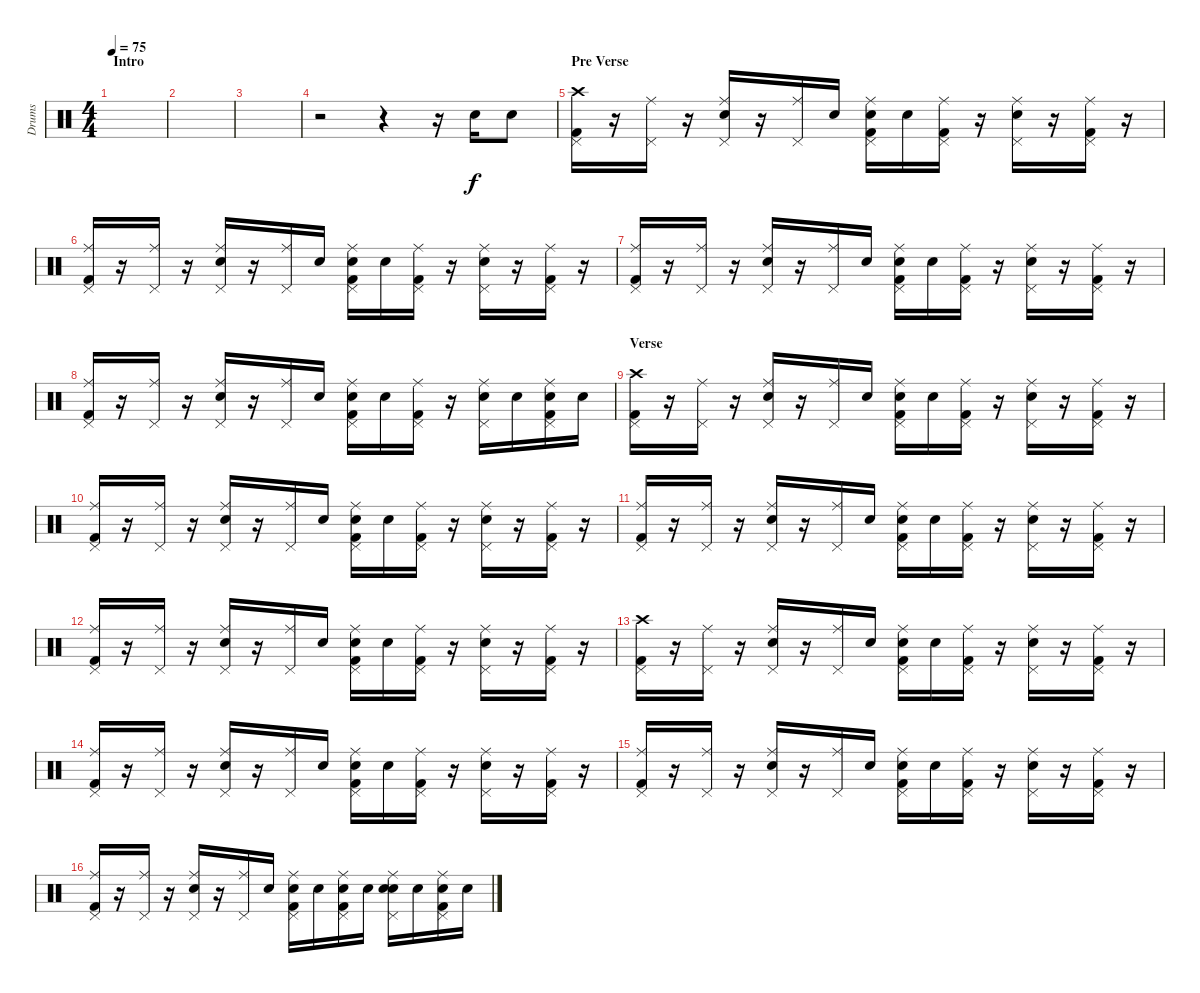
\track ("Drums" "Drums") {instrument percussion}
\staff {score}
\articulation defaults
\ts (4 4)
\section ("" "Intro")
\tempo 75
\clef neutral
\ks c
|
|
|
r.2 r.4 r.16 "Electric Snare (hit)".16 "Electric Snare (hit)".8 |
\section ("" "Pre Verse")
("Crash high (hit)" "Kick (hit) 2" "Pedal Hi-Hat (hit)").16 r.16 ("Ride (middle)" "Pedal Hi-Hat (hit)").16 r.16 ("Ride (middle)" "Electric Snare (hit)" "Pedal Hi-Hat (hit)").16 r.16 ("Ride (middle)" "Pedal Hi-Hat (hit)").16 "Snare (hit) 2".16 ("Ride (middle)" "Electric Snare (hit)" "Kick (hit) 2" "Pedal Hi-Hat (hit)").16 "Electric Snare (hit)".16 ("Ride (middle)" "Kick (hit) 2" "Pedal Hi-Hat (hit)").16 r.16 ("Ride (middle)" "Electric Snare (hit)" "Pedal Hi-Hat (hit)").16 r.16 ("Ride (middle)" "Kick (hit) 2" "Pedal Hi-Hat (hit)").16 r.16 |
("Ride (middle)" "Kick (hit) 2" "Pedal Hi-Hat (hit)").16 r.16 ("Ride (middle)" "Pedal Hi-Hat (hit)").16 r.16 ("Ride (middle)" "Electric Snare (hit)" "Pedal Hi-Hat (hit)").16 r.16 ("Ride (middle)" "Pedal Hi-Hat (hit)").16 "Snare (hit) 2".16 ("Ride (middle)" "Electric Snare (hit)" "Kick (hit) 2" "Pedal Hi-Hat (hit)").16 "Electric Snare (hit)".16 ("Ride (middle)" "Kick (hit) 2" "Pedal Hi-Hat (hit)").16 r.16 ("Ride (middle)" "Electric Snare (hit)" "Pedal Hi-Hat (hit)").16 r.16 ("Ride (middle)" "Kick (hit) 2" "Pedal Hi-Hat (hit)").16 r.16 |
("Ride (middle)" "Kick (hit) 2" "Pedal Hi-Hat (hit)").16 r.16 ("Ride (middle)" "Pedal Hi-Hat (hit)").16 r.16 ("Ride (middle)" "Electric Snare (hit)" "Pedal Hi-Hat (hit)").16 r.16 ("Ride (middle)" "Pedal Hi-Hat (hit)").16 "Snare (hit) 2".16 ("Ride (middle)" "Electric Snare (hit)" "Kick (hit) 2" "Pedal Hi-Hat (hit)").16 "Electric Snare (hit)".16 ("Ride (middle)" "Kick (hit) 2" "Pedal Hi-Hat (hit)").16 r.16 ("Ride (middle)" "Electric Snare (hit)" "Pedal Hi-Hat (hit)").16 r.16 ("Ride (middle)" "Kick (hit) 2" "Pedal Hi-Hat (hit)").16 r.16 |
("Ride (middle)" "Kick (hit) 2" "Pedal Hi-Hat (hit)").16 r.16 ("Ride (middle)" "Pedal Hi-Hat (hit)").16 r.16 ("Ride (middle)" "Electric Snare (hit)" "Pedal Hi-Hat (hit)").16 r.16 ("Ride (middle)" "Pedal Hi-Hat (hit)").16 "Snare (hit) 2".16 ("Ride (middle)" "Electric Snare (hit)" "Kick (hit) 2" "Pedal Hi-Hat (hit)").16 "Electric Snare (hit)".16 ("Ride (middle)" "Kick (hit) 2" "Pedal Hi-Hat (hit)").16 r.16 ("Ride (middle)" "Electric Snare (hit)" "Pedal Hi-Hat (hit)").16 "Electric Snare (hit)".16 ("Ride (middle)" "Electric Snare (hit)" "Kick (hit) 2" "Pedal Hi-Hat (hit)").16 "Electric Snare (hit)".16 |
\section ("" "Verse")
("Crash high (hit)" "Kick (hit) 2" "Pedal Hi-Hat (hit)").16 r.16 ("Ride (middle)" "Pedal Hi-Hat (hit)").16 r.16 ("Ride (middle)" "Electric Snare (hit)" "Pedal Hi-Hat (hit)").16 r.16 ("Ride (middle)" "Pedal Hi-Hat (hit)").16 "Snare (hit) 2".16 ("Ride (middle)" "Electric Snare (hit)" "Kick (hit) 2" "Pedal Hi-Hat (hit)").16 "Electric Snare (hit)".16 ("Ride (middle)" "Kick (hit) 2" "Pedal Hi-Hat (hit)").16 r.16 ("Ride (middle)" "Electric Snare (hit)" "Pedal Hi-Hat (hit)").16 r.16 ("Ride (middle)" "Kick (hit) 2" "Pedal Hi-Hat (hit)").16 r.16 |
("Ride (middle)" "Kick (hit) 2" "Pedal Hi-Hat (hit)").16 r.16 ("Ride (middle)" "Pedal Hi-Hat (hit)").16 r.16 ("Ride (middle)" "Electric Snare (hit)" "Pedal Hi-Hat (hit)").16 r.16 ("Ride (middle)" "Pedal Hi-Hat (hit)").16 "Snare (hit) 2".16 ("Ride (middle)" "Electric Snare (hit)" "Kick (hit) 2" "Pedal Hi-Hat (hit)").16 "Electric Snare (hit)".16 ("Ride (middle)" "Kick (hit) 2" "Pedal Hi-Hat (hit)").16 r.16 ("Ride (middle)" "Electric Snare (hit)" "Pedal Hi-Hat (hit)").16 r.16 ("Ride (middle)" "Kick (hit) 2" "Pedal Hi-Hat (hit)").16 r.16 |
("Ride (middle)" "Kick (hit) 2" "Pedal Hi-Hat (hit)").16 r.16 ("Ride (middle)" "Pedal Hi-Hat (hit)").16 r.16 ("Ride (middle)" "Electric Snare (hit)" "Pedal Hi-Hat (hit)").16 r.16 ("Ride (middle)" "Pedal Hi-Hat (hit)").16 "Snare (hit) 2".16 ("Ride (middle)" "Electric Snare (hit)" "Kick (hit) 2" "Pedal Hi-Hat (hit)").16 "Electric Snare (hit)".16 ("Ride (middle)" "Kick (hit) 2" "Pedal Hi-Hat (hit)").16 r.16 ("Ride (middle)" "Electric Snare (hit)" "Pedal Hi-Hat (hit)").16 r.16 ("Ride (middle)" "Kick (hit) 2" "Pedal Hi-Hat (hit)").16 r.16 |
("Ride (middle)" "Kick (hit) 2" "Pedal Hi-Hat (hit)").16 r.16 ("Ride (middle)" "Pedal Hi-Hat (hit)").16 r.16 ("Ride (middle)" "Electric Snare (hit)" "Pedal Hi-Hat (hit)").16 r.16 ("Ride (middle)" "Pedal Hi-Hat (hit)").16 "Snare (hit) 2".16 ("Ride (middle)" "Electric Snare (hit)" "Kick (hit) 2" "Pedal Hi-Hat (hit)").16 "Electric Snare (hit)".16 ("Ride (middle)" "Kick (hit) 2" "Pedal Hi-Hat (hit)").16 r.16 ("Ride (middle)" "Electric Snare (hit)" "Pedal Hi-Hat (hit)").16 r.16 ("Ride (middle)" "Kick (hit) 2" "Pedal Hi-Hat (hit)").16 r.16 |
("Crash high (hit)" "Kick (hit) 2" "Pedal Hi-Hat (hit)").16 r.16 ("Ride (middle)" "Pedal Hi-Hat (hit)").16 r.16 ("Ride (middle)" "Electric Snare (hit)" "Pedal Hi-Hat (hit)").16 r.16 ("Ride (middle)" "Pedal Hi-Hat (hit)").16 "Snare (hit) 2".16 ("Ride (middle)" "Electric Snare (hit)" "Kick (hit) 2" "Pedal Hi-Hat (hit)").16 "Electric Snare (hit)".16 ("Ride (middle)" "Kick (hit) 2" "Pedal Hi-Hat (hit)").16 r.16 ("Ride (middle)" "Electric Snare (hit)" "Pedal Hi-Hat (hit)").16 r.16 ("Ride (middle)" "Kick (hit) 2" "Pedal Hi-Hat (hit)").16 r.16 |
("Ride (middle)" "Kick (hit) 2" "Pedal Hi-Hat (hit)").16 r.16 ("Ride (middle)" "Pedal Hi-Hat (hit)").16 r.16 ("Ride (middle)" "Electric Snare (hit)" "Pedal Hi-Hat (hit)").16 r.16 ("Ride (middle)" "Pedal Hi-Hat (hit)").16 "Snare (hit) 2".16 ("Ride (middle)" "Electric Snare (hit)" "Kick (hit) 2" "Pedal Hi-Hat (hit)").16 "Electric Snare (hit)".16 ("Ride (middle)" "Kick (hit) 2" "Pedal Hi-Hat (hit)").16 r.16 ("Ride (middle)" "Electric Snare (hit)" "Pedal Hi-Hat (hit)").16 r.16 ("Ride (middle)" "Kick (hit) 2" "Pedal Hi-Hat (hit)").16 r.16 |
("Ride (middle)" "Kick (hit) 2" "Pedal Hi-Hat (hit)").16 r.16 ("Ride (middle)" "Pedal Hi-Hat (hit)").16 r.16 ("Ride (middle)" "Electric Snare (hit)" "Pedal Hi-Hat (hit)").16 r.16 ("Ride (middle)" "Pedal Hi-Hat (hit)").16 "Snare (hit) 2".16 ("Ride (middle)" "Electric Snare (hit)" "Kick (hit) 2" "Pedal Hi-Hat (hit)").16 "Electric Snare (hit)".16 ("Ride (middle)" "Kick (hit) 2" "Pedal Hi-Hat (hit)").16 r.16 ("Ride (middle)" "Electric Snare (hit)" "Pedal Hi-Hat (hit)").16 r.16 ("Ride (middle)" "Kick (hit) 2" "Pedal Hi-Hat (hit)").16 r.16 |
("Ride (middle)" "Kick (hit) 2" "Pedal Hi-Hat (hit)").16 r.16 ("Ride (middle)" "Pedal Hi-Hat (hit)").16 r.16 ("Ride (middle)" "Electric Snare (hit)" "Pedal Hi-Hat (hit)").16 r.16 ("Ride (middle)" "Pedal Hi-Hat (hit)").16 "Snare (hit) 2".16 ("Ride (middle)" "Electric Snare (hit)" "Kick (hit) 2" "Pedal Hi-Hat (hit)").16 "Electric Snare (hit)".16 ("Ride (middle)" "Snare (hit) 2" "Kick (hit) 2" "Pedal Hi-Hat (hit)").16 "Electric Snare (hit)".16 ("Ride (middle)" "Electric Snare (hit)" "Electric Snare (hit)" "Pedal Hi-Hat (hit)").16 "Snare (hit) 2".16 ("Ride (middle)" "Electric Snare (hit)" "Kick (hit) 2" "Pedal Hi-Hat (hit)").16 "Electric Snare (hit)".16
